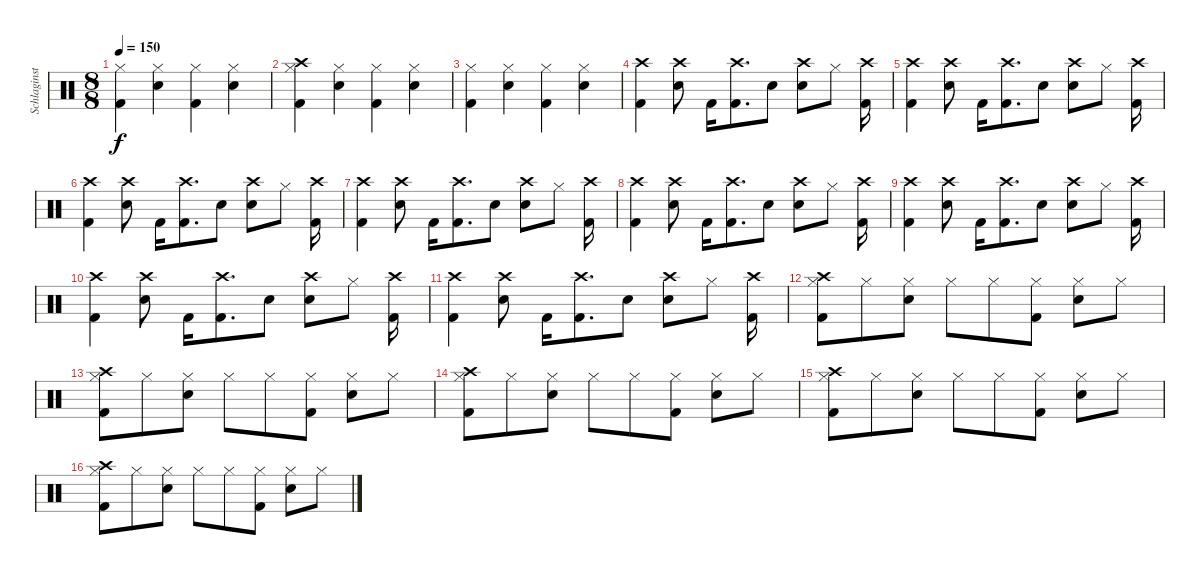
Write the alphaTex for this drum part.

\track ("Schlaginstrumente - Auswahl" "Schlaginst") {instrument percussion}
\staff {score}
\articulation defaults
\ts (8 8)
\tempo 150
\clef neutral
\ks c
("Hi-Hat (closed)" "Kick (hit) 2").4{dy f} ("Hi-Hat (closed)" "Snare (hit) 2").4 ("Hi-Hat (closed)" "Kick (hit) 2").4 ("Hi-Hat (closed)" "Snare (hit) 2").4 |
("Hi-Hat (closed)" "Kick (hit) 2" "Crash high (hit)").4 ("Hi-Hat (closed)" "Snare (hit) 2").4 ("Hi-Hat (closed)" "Kick (hit) 2").4 ("Hi-Hat (closed)" "Snare (hit) 2").4 |
("Hi-Hat (closed)" "Kick (hit) 2").4 ("Hi-Hat (closed)" "Snare (hit) 2").4 ("Hi-Hat (closed)" "Kick (hit) 2").4 ("Hi-Hat (closed)" "Snare (hit) 2").4 |
("Kick (hit) 2" "Crash high (hit)").4 ("Snare (hit) 2" "Crash high (hit)").8 "Kick (hit) 2".16 ("Kick (hit) 2" "Crash high (hit)").8{d} "Snare (hit) 2".8 ("Snare (hit) 2" "Crash high (hit)").8 "Hi-Hat (closed)".8 ("Kick (hit) 2" "Crash high (hit)").16 |
("Kick (hit) 2" "Crash high (hit)").4 ("Snare (hit) 2" "Crash high (hit)").8 "Kick (hit) 2".16 ("Kick (hit) 2" "Crash high (hit)").8{d} "Snare (hit) 2".8 ("Snare (hit) 2" "Crash high (hit)").8 "Hi-Hat (closed)".8 ("Kick (hit) 2" "Crash high (hit)").16 |
("Kick (hit) 2" "Crash high (hit)").4 ("Snare (hit) 2" "Crash high (hit)").8 "Kick (hit) 2".16 ("Kick (hit) 2" "Crash high (hit)").8{d} "Snare (hit) 2".8 ("Snare (hit) 2" "Crash high (hit)").8 "Hi-Hat (closed)".8 ("Kick (hit) 2" "Crash high (hit)").16 |
("Kick (hit) 2" "Crash high (hit)").4 ("Snare (hit) 2" "Crash high (hit)").8 "Kick (hit) 2".16 ("Kick (hit) 2" "Crash high (hit)").8{d} "Snare (hit) 2".8 ("Snare (hit) 2" "Crash high (hit)").8 "Hi-Hat (closed)".8 ("Kick (hit) 2" "Crash high (hit)").16 |
("Kick (hit) 2" "Crash high (hit)").4 ("Snare (hit) 2" "Crash high (hit)").8 "Kick (hit) 2".16 ("Kick (hit) 2" "Crash high (hit)").8{d} "Snare (hit) 2".8 ("Snare (hit) 2" "Crash high (hit)").8 "Hi-Hat (closed)".8 ("Kick (hit) 2" "Crash high (hit)").16 |
("Kick (hit) 2" "Crash high (hit)").4 ("Snare (hit) 2" "Crash high (hit)").8 "Kick (hit) 2".16 ("Kick (hit) 2" "Crash high (hit)").8{d} "Snare (hit) 2".8 ("Snare (hit) 2" "Crash high (hit)").8 "Hi-Hat (closed)".8 ("Kick (hit) 2" "Crash high (hit)").16 |
("Kick (hit) 2" "Crash high (hit)").4 ("Snare (hit) 2" "Crash high (hit)").8 "Kick (hit) 2".16 ("Kick (hit) 2" "Crash high (hit)").8{d} "Snare (hit) 2".8 ("Snare (hit) 2" "Crash high (hit)").8 "Hi-Hat (closed)".8 ("Kick (hit) 2" "Crash high (hit)").16 |
("Kick (hit) 2" "Crash high (hit)").4 ("Snare (hit) 2" "Crash high (hit)").8 "Kick (hit) 2".16 ("Kick (hit) 2" "Crash high (hit)").8{d} "Snare (hit) 2".8 ("Snare (hit) 2" "Crash high (hit)").8 "Hi-Hat (closed)".8 ("Kick (hit) 2" "Crash high (hit)").16 |
("Hi-Hat (closed)" "Kick (hit) 2" "Crash high (hit)").8 "Hi-Hat (closed)".8 ("Hi-Hat (closed)" "Snare (hit) 2").8 "Hi-Hat (closed)".8 "Hi-Hat (closed)".8 ("Hi-Hat (closed)" "Kick (hit) 2").8 ("Hi-Hat (closed)" "Snare (hit) 2").8 "Hi-Hat (closed)".8 |
("Hi-Hat (closed)" "Kick (hit) 2" "Crash high (hit)").8 "Hi-Hat (closed)".8 ("Hi-Hat (closed)" "Snare (hit) 2").8 "Hi-Hat (closed)".8 "Hi-Hat (closed)".8 ("Hi-Hat (closed)" "Kick (hit) 2").8 ("Hi-Hat (closed)" "Snare (hit) 2").8 "Hi-Hat (closed)".8 |
("Hi-Hat (closed)" "Kick (hit) 2" "Crash high (hit)").8 "Hi-Hat (closed)".8 ("Hi-Hat (closed)" "Snare (hit) 2").8 "Hi-Hat (closed)".8 "Hi-Hat (closed)".8 ("Hi-Hat (closed)" "Kick (hit) 2").8 ("Hi-Hat (closed)" "Snare (hit) 2").8 "Hi-Hat (closed)".8 |
("Hi-Hat (closed)" "Kick (hit) 2" "Crash high (hit)").8 "Hi-Hat (closed)".8 ("Hi-Hat (closed)" "Snare (hit) 2").8 "Hi-Hat (closed)".8 "Hi-Hat (closed)".8 ("Hi-Hat (closed)" "Kick (hit) 2").8 ("Hi-Hat (closed)" "Snare (hit) 2").8 "Hi-Hat (closed)".8 |
("Hi-Hat (closed)" "Kick (hit) 2" "Crash high (hit)").8 "Hi-Hat (closed)".8 ("Hi-Hat (closed)" "Snare (hit) 2").8 "Hi-Hat (closed)".8 "Hi-Hat (closed)".8 ("Hi-Hat (closed)" "Kick (hit) 2").8 ("Hi-Hat (closed)" "Snare (hit) 2").8 "Hi-Hat (closed)".8
